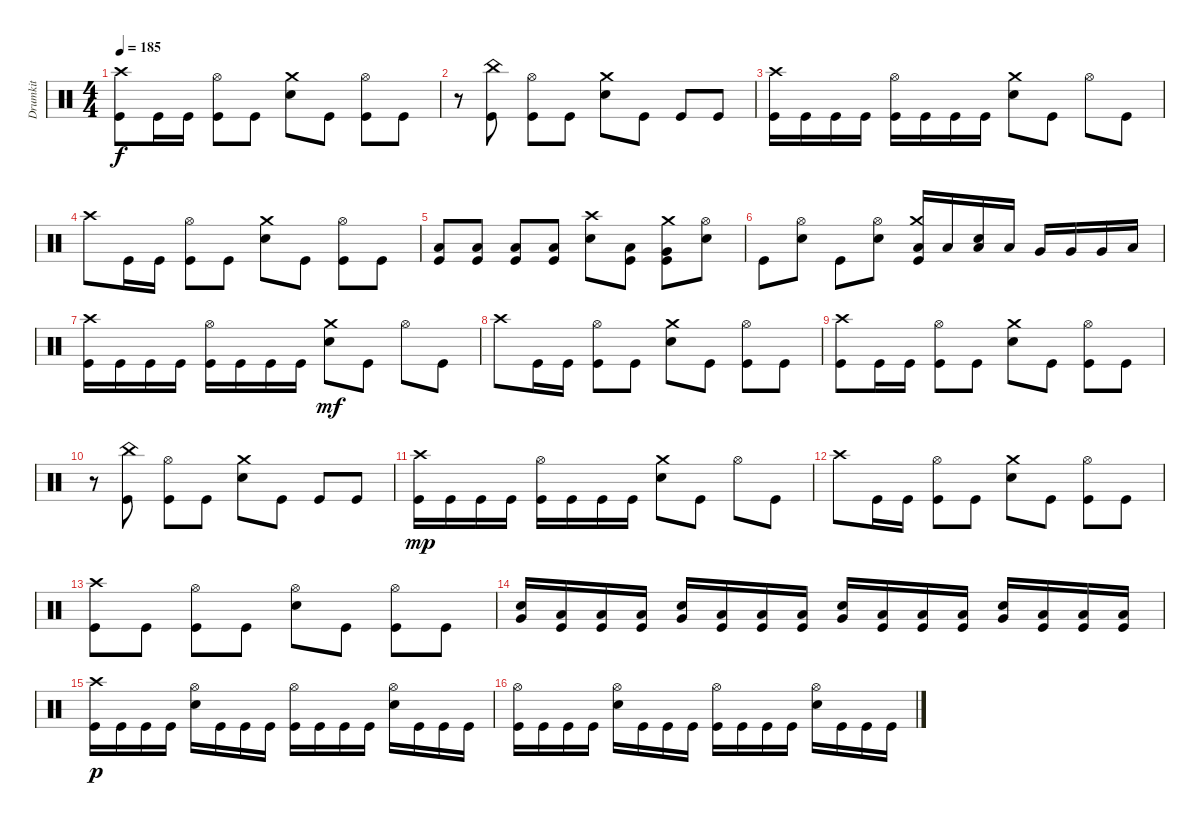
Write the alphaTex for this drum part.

\track ("Drumkit" "Drumkit") {instrument percussion}
\staff {score}
\articulation defaults
\ts (4 4)
\tempo 185
\clef neutral
\ks c
("Kick (hit)" "Crash high (hit)").8{dy f} "Kick (hit)".16 "Kick (hit)".16 ("Kick (hit)" "Hi-Hat (open)").8 "Kick (hit)".8 ("Snare (hit) 2" "Crash medium (hit)").8 "Kick (hit)".8 ("Kick (hit)" "Hi-Hat (open)").8 "Kick (hit)".8 |
r.8 ("Kick (hit)" "China (hit)").8 ("Kick (hit)" "Hi-Hat (open)").8 "Kick (hit)".8 ("Snare (hit) 2" "Crash medium (hit)").8 "Kick (hit)".8 "Kick (hit)".8 "Kick (hit)".8 |
("Kick (hit)" "Crash high (hit)").16 "Kick (hit)".16 "Kick (hit)".16 "Kick (hit)".16 ("Kick (hit)" "Hi-Hat (open)").16 "Kick (hit)".16 "Kick (hit)".16 "Kick (hit)".16 ("Snare (hit) 2" "Crash medium (hit)").8 "Kick (hit)".8 "Hi-Hat (open)".8 "Kick (hit)".8 |
"Crash high (hit)".8 "Kick (hit)".16 "Kick (hit)".16 ("Kick (hit)" "Hi-Hat (open)").8 "Kick (hit)".8 ("Snare (hit) 2" "Crash medium (hit)").8 "Kick (hit)".8 ("Kick (hit)" "Hi-Hat (open)").8 "Kick (hit)".8 |
("Kick (hit)" "Low Floor Tom (hit)").8 ("Kick (hit)" "Low Floor Tom (hit)").8 ("Kick (hit)" "Low Floor Tom (hit)").8 ("Kick (hit)" "Low Floor Tom (hit)").8 ("Snare (hit) 2" "Crash high (hit)").8 ("Kick (hit)" "Low Floor Tom (hit)").8 ("Kick (hit)" "Crash medium (hit)" "Very Low Tom (hit)").8 ("Snare (hit) 2" "Hi-Hat (open)").8 |
"Kick (hit)".8 ("Snare (hit) 2" "Hi-Hat (open)").8 "Kick (hit)".8 ("Snare (hit) 2" "Hi-Hat (open)").8 ("Low Floor Tom (hit)" "Kick (hit)" "Crash medium (hit)").16 "Low Tom (hit)".16 ("Low Tom (hit)" "Snare (hit) 2").16 "Low Tom (hit)".16 "Very Low Tom (hit)".16 "Very Low Tom (hit)".16 "Very Low Tom (hit)".16 "Low Floor Tom (hit)".16 |
("Kick (hit)" "Crash high (hit)").16 "Kick (hit)".16 "Kick (hit)".16 "Kick (hit)".16 ("Kick (hit)" "Hi-Hat (open)").16 "Kick (hit)".16 "Kick (hit)".16 "Kick (hit)".16 ("Snare (hit) 2" "Crash medium (hit)").8{dy mf} "Kick (hit)".8 "Hi-Hat (open)".8 "Kick (hit)".8 |
"Crash high (hit)".8 "Kick (hit)".16 "Kick (hit)".16 ("Kick (hit)" "Hi-Hat (open)").8 "Kick (hit)".8 ("Snare (hit) 2" "Crash medium (hit)").8 "Kick (hit)".8 ("Kick (hit)" "Hi-Hat (open)").8 "Kick (hit)".8 |
("Kick (hit)" "Crash high (hit)").8 "Kick (hit)".16 "Kick (hit)".16 ("Kick (hit)" "Hi-Hat (open)").8 "Kick (hit)".8 ("Snare (hit) 2" "Crash medium (hit)").8 "Kick (hit)".8 ("Kick (hit)" "Hi-Hat (open)").8 "Kick (hit)".8 |
r.8 ("Kick (hit)" "China (hit)").8 ("Kick (hit)" "Hi-Hat (open)").8 "Kick (hit)".8 ("Snare (hit) 2" "Crash medium (hit)").8 "Kick (hit)".8 "Kick (hit)".8 "Kick (hit)".8 |
("Kick (hit)" "Crash high (hit)").16{dy mp} "Kick (hit)".16 "Kick (hit)".16 "Kick (hit)".16 ("Kick (hit)" "Hi-Hat (open)").16 "Kick (hit)".16 "Kick (hit)".16 "Kick (hit)".16 ("Snare (hit) 2" "Crash medium (hit)").8 "Kick (hit)".8 "Hi-Hat (open)".8 "Kick (hit)".8 |
"Crash high (hit)".8 "Kick (hit)".16 "Kick (hit)".16 ("Kick (hit)" "Hi-Hat (open)").8 "Kick (hit)".8 ("Snare (hit) 2" "Crash medium (hit)").8 "Kick (hit)".8 ("Kick (hit)" "Hi-Hat (open)").8 "Kick (hit)".8 |
("Kick (hit)" "Crash high (hit)").8 "Kick (hit)".8 ("Kick (hit)" "Hi-Hat (open)").8 "Kick (hit)".8 ("Snare (hit) 2" "Hi-Hat (open)").8 "Kick (hit)".8 ("Kick (hit)" "Hi-Hat (open)").8 "Kick (hit)".8 |
("Very Low Tom (hit)" "Snare (hit) 2").16 ("Low Floor Tom (hit)" "Kick (hit)").16 ("Low Floor Tom (hit)" "Kick (hit)").16 ("Low Floor Tom (hit)" "Kick (hit)").16 ("Very Low Tom (hit)" "Snare (hit) 2").16 ("Low Floor Tom (hit)" "Kick (hit)").16 ("Low Floor Tom (hit)" "Kick (hit)").16 ("Low Floor Tom (hit)" "Kick (hit)").16 ("Very Low Tom (hit)" "Snare (hit) 2").16 ("Low Floor Tom (hit)" "Kick (hit)").16 ("Low Floor Tom (hit)" "Kick (hit)").16 ("Low Floor Tom (hit)" "Kick (hit)").16 ("Very Low Tom (hit)" "Snare (hit) 2").16 ("Low Floor Tom (hit)" "Kick (hit)").16 ("Low Floor Tom (hit)" "Kick (hit)").16 ("Low Floor Tom (hit)" "Kick (hit)").16 |
("Kick (hit)" "Crash high (hit)").16{dy p} "Kick (hit)".16 "Kick (hit)".16 "Kick (hit)".16 ("Snare (hit) 2" "Hi-Hat (open)").16 "Kick (hit)".16 "Kick (hit)".16 "Kick (hit)".16 ("Kick (hit)" "Hi-Hat (open)").16 "Kick (hit)".16 "Kick (hit)".16 "Kick (hit)".16 ("Snare (hit) 2" "Hi-Hat (open)").16 "Kick (hit)".16 "Kick (hit)".16 "Kick (hit)".16 |
("Kick (hit)" "Hi-Hat (open)").16 "Kick (hit)".16 "Kick (hit)".16 "Kick (hit)".16 ("Snare (hit) 2" "Hi-Hat (open)").16 "Kick (hit)".16 "Kick (hit)".16 "Kick (hit)".16 ("Kick (hit)" "Hi-Hat (open)").16 "Kick (hit)".16 "Kick (hit)".16 "Kick (hit)".16 ("Snare (hit) 2" "Hi-Hat (open)").16 "Kick (hit)".16 "Kick (hit)".16 "Kick (hit)".16
